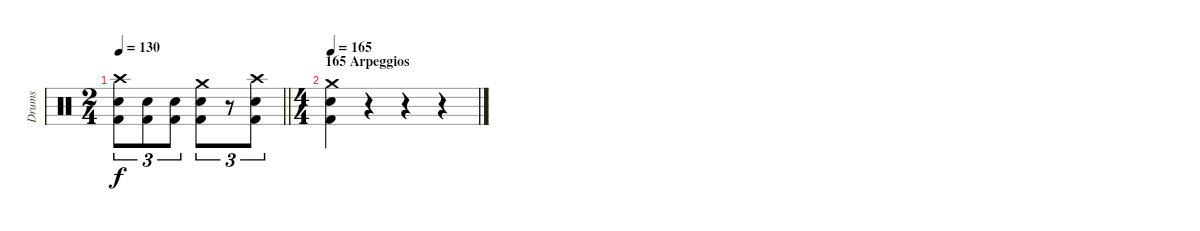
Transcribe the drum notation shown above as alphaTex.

\track ("Drums" "Drums") {instrument percussion}
\staff {score}
\articulation defaults
\ts (2 4)
\tempo 130
\clef neutral
\barLineRight lightlight
\ks c
("Crash high (hit)" "Snare (hit) 2" "Kick (hit) 2").8{tu (3 2) dy f} ("Snare (hit) 2" "Kick (hit) 2").8{tu (3 2)} ("Snare (hit) 2" "Kick (hit) 2").8{tu (3 2)} ("Crash medium (hit)" "Snare (hit) 2" "Kick (hit) 2").8{tu (3 2)} r.8{tu (3 2)} ("Crash high (hit)" "Snare (hit) 2" "Kick (hit) 2").8{tu (3 2)} |
\ts (4 4)
\section ("" "165 Arpeggios")
\tempo 165
("Crash medium (hit)" "Snare (hit) 2" "Kick (hit) 2").4 r.4 r.4 r.4
